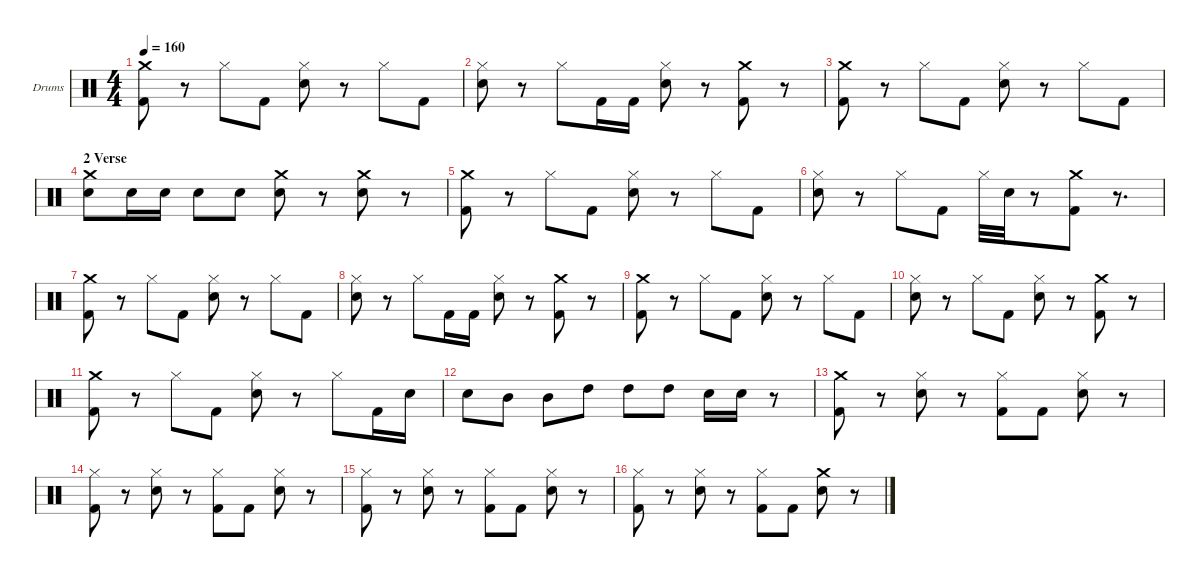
\hideDynamics
\bracketExtendMode nobrackets
\firstSystemTrackNameOrientation horizontal
\otherSystemsTrackNameOrientation horizontal
\track ("Drumkit" "Drums") {instrument percussion}
\staff {score}
\articulation defaults
\ts (4 4)
\tempo 160
\clef neutral
\ks c
("Kick (hit) 2" "Crash medium (hit)").8{dy f} r.8 "Hi-Hat (closed)".8 "Kick (hit) 2".8 ("Snare (hit) 2" "Hi-Hat (closed)").8 r.8 "Hi-Hat (closed)".8 "Kick (hit) 2".8 |
("Snare (hit) 2" "Hi-Hat (closed)").8 r.8 "Hi-Hat (closed)".8 "Kick (hit) 2".16 "Kick (hit) 2".16 ("Snare (hit) 2" "Hi-Hat (closed)").8 r.8 ("Crash medium (hit)" "Kick (hit) 2").8 r.8 |
("Kick (hit) 2" "Crash medium (hit)").8 r.8 "Hi-Hat (closed)".8 "Kick (hit) 2".8 ("Snare (hit) 2" "Hi-Hat (closed)").8 r.8 "Hi-Hat (closed)".8 "Kick (hit) 2".8 |
\section ("" "2 Verse")
("Snare (hit) 2" "Crash medium (hit)").8 "Snare (hit) 2".16 "Snare (hit) 2".16 "Snare (hit) 2".8 "Snare (hit) 2".8 ("Crash medium (hit)" "Snare (hit) 2").8 r.8 ("Crash medium (hit)" "Snare (hit) 2").8 r.8 |
("Kick (hit) 2" "Crash medium (hit)").8 r.8 "Hi-Hat (closed)".8 "Kick (hit) 2".8 ("Snare (hit) 2" "Hi-Hat (closed)").8 r.8 "Hi-Hat (closed)".8 "Kick (hit) 2".8 |
("Hi-Hat (closed)" "Snare (hit) 2").8 r.8 "Hi-Hat (closed)".8 "Kick (hit) 2".8 "Hi-Hat (closed)".32 "Snare (hit) 2".32 r.8 ("Crash medium (hit)" "Kick (hit) 2").8 r.8{d} |
("Kick (hit) 2" "Crash medium (hit)").8 r.8 "Hi-Hat (closed)".8 "Kick (hit) 2".8 ("Snare (hit) 2" "Hi-Hat (closed)").8 r.8 "Hi-Hat (closed)".8 "Kick (hit) 2".8 |
("Snare (hit) 2" "Hi-Hat (closed)").8 r.8 "Hi-Hat (closed)".8 "Kick (hit) 2".16 "Kick (hit) 2".16 ("Snare (hit) 2" "Hi-Hat (closed)").8 r.8 ("Crash medium (hit)" "Kick (hit) 2").8 r.8 |
("Kick (hit) 2" "Crash medium (hit)").8 r.8 "Hi-Hat (closed)".8 "Kick (hit) 2".8 ("Snare (hit) 2" "Hi-Hat (closed)").8 r.8 "Hi-Hat (closed)".8 "Kick (hit) 2".8 |
("Snare (hit) 2" "Hi-Hat (closed)").8 r.8 "Hi-Hat (closed)".8 "Kick (hit) 2".8 ("Snare (hit) 2" "Hi-Hat (closed)").8 r.8 ("Crash medium (hit)" "Kick (hit) 2").8 r.8 |
("Kick (hit) 2" "Crash medium (hit)").8 r.8 "Hi-Hat (closed)".8 "Kick (hit) 2".8 ("Snare (hit) 2" "Hi-Hat (closed)").8 r.8 "Hi-Hat (closed)".8 "Kick (hit) 2".16 "Snare (hit) 2".16 |
"Snare (hit) 2".8 "Mid Tom (hit)".8 "Mid Tom (hit)".8 "High Tom (hit)".8 "High Tom (hit)".8 "High Tom (hit)".8 "Snare (hit) 2".16 "Snare (hit) 2".16 r.8 |
("Kick (hit) 2" "Crash medium (hit)").8 r.8 ("Hi-Hat (closed)" "Snare (hit) 2").8 r.8 ("Kick (hit) 2" "Hi-Hat (closed)").8 "Kick (hit) 2".8 ("Snare (hit) 2" "Hi-Hat (closed)").8 r.8 |
("Kick (hit) 2" "Hi-Hat (closed)").8 r.8 ("Snare (hit) 2" "Hi-Hat (closed)").8 r.8 ("Kick (hit) 2" "Hi-Hat (closed)").8 "Kick (hit) 2".8 ("Snare (hit) 2" "Hi-Hat (closed)").8 r.8 |
("Kick (hit) 2" "Hi-Hat (closed)").8 r.8 ("Snare (hit) 2" "Hi-Hat (closed)").8 r.8 ("Kick (hit) 2" "Hi-Hat (closed)").8 "Kick (hit) 2".8 ("Snare (hit) 2" "Hi-Hat (closed)").8 r.8 |
("Kick (hit) 2" "Hi-Hat (closed)").8 r.8 ("Snare (hit) 2" "Hi-Hat (closed)").8 r.8 ("Kick (hit) 2" "Hi-Hat (closed)").8 "Kick (hit) 2".8 ("Crash medium (hit)" "Snare (hit) 2").8 r.8
